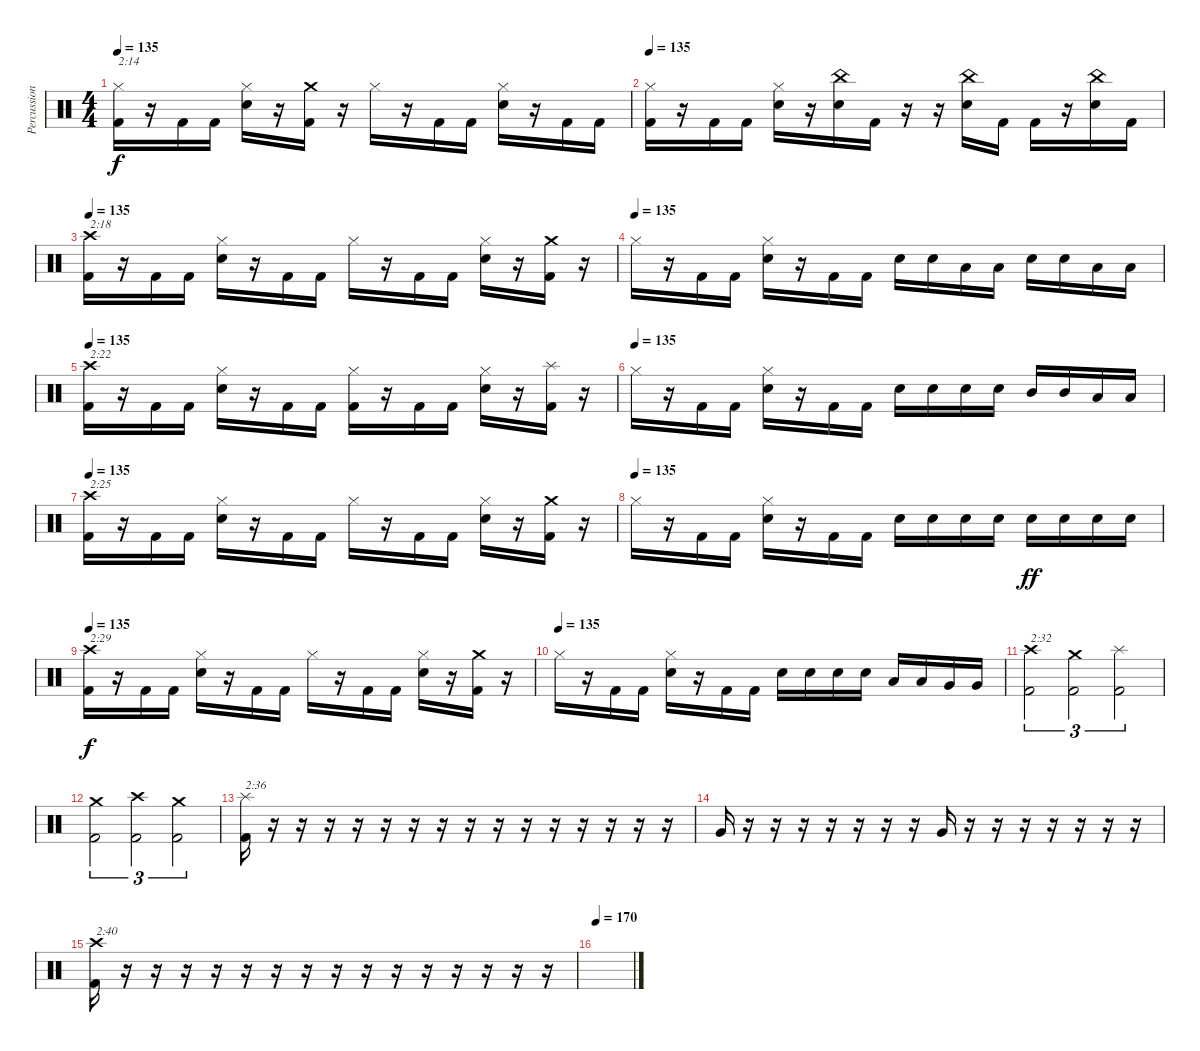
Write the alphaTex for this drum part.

\track ("Percussion" "Percussion") {instrument percussion}
\staff {score}
\articulation defaults
\ts (4 4)
\tempo 135
\clef neutral
\ks c
("Hi-Hat (closed)" "Kick (hit) 2").16{txt "2:14" dy f} r.16 "Kick (hit) 2".16 "Kick (hit) 2".16 ("Hi-Hat (closed)" "Snare (hit) 2").16 r.16 ("Crash medium (hit)" "Kick (hit) 2").16 r.16 "Hi-Hat (closed)".16 r.16 "Kick (hit) 2".16 "Kick (hit) 2".16 ("Hi-Hat (closed)" "Snare (hit) 2").16 r.16 "Kick (hit) 2".16 "Kick (hit) 2".16 |
\tempo 135
("Hi-Hat (closed)" "Kick (hit) 2").16 r.16 "Kick (hit) 2".16 "Kick (hit) 2".16 ("Hi-Hat (closed)" "Snare (hit) 2").16 r.16 ("China (hit)" "Snare (hit) 2").16 "Kick (hit) 2".16 r.16 r.16 ("China (hit)" "Snare (hit) 2").16 "Kick (hit) 2".16 "Kick (hit) 2".16 r.16 ("China (hit)" "Snare (hit) 2").16 "Kick (hit) 2".16 |
\tempo 135
("Crash high (hit)" "Kick (hit) 2").16{txt "2:18"} r.16 "Kick (hit) 2".16 "Kick (hit) 2".16 ("Hi-Hat (closed)" "Snare (hit) 2").16 r.16 "Kick (hit) 2".16 "Kick (hit) 2".16 "Hi-Hat (closed)".16 r.16 "Kick (hit) 2".16 "Kick (hit) 2".16 ("Hi-Hat (closed)" "Snare (hit) 2").16 r.16 ("Crash medium (hit)" "Kick (hit) 2").16 r.16 |
\tempo (135)
"Hi-Hat (closed)".16 r.16 "Kick (hit) 2".16 "Kick (hit) 2".16 ("Hi-Hat (closed)" "Snare (hit) 2").16 r.16 "Kick (hit) 2".16 "Kick (hit) 2".16 "Snare (hit) 2".16 "Snare (hit) 2".16 "Low Tom (hit)".16 "Low Tom (hit)".16 "Snare (hit) 2".16 "Snare (hit) 2".16 "Low Tom (hit)".16 "Low Tom (hit)".16 |
\tempo 135
("Crash high (hit)" "Kick (hit) 2").16{txt "2:22"} r.16 "Kick (hit) 2".16 "Kick (hit) 2".16 ("Hi-Hat (closed)" "Snare (hit) 2").16 r.16 "Kick (hit) 2".16 "Kick (hit) 2".16 ("Hi-Hat (closed)" "Kick (hit) 2").16 r.16 "Kick (hit) 2".16 "Kick (hit) 2".16 ("Hi-Hat (closed)" "Snare (hit) 2").16 r.16 ("Splash (hit)" "Kick (hit) 2").16 r.16 |
\tempo (135)
"Hi-Hat (closed)".16 r.16 "Kick (hit) 2".16 "Kick (hit) 2".16 ("Hi-Hat (closed)" "Snare (hit) 2").16 r.16 "Kick (hit) 2".16 "Kick (hit) 2".16 "Snare (hit) 2".16 "Snare (hit) 2".16 "Snare (hit) 2".16 "Snare (hit) 2".16 "Mid Tom (hit)".16 "Mid Tom (hit)".16 "Low Tom (hit)".16 "Low Tom (hit)".16 |
\tempo 135
("Crash high (hit)" "Kick (hit) 2").16{txt "2:25"} r.16 "Kick (hit) 2".16 "Kick (hit) 2".16 ("Hi-Hat (closed)" "Snare (hit) 2").16 r.16 "Kick (hit) 2".16 "Kick (hit) 2".16 "Hi-Hat (closed)".16 r.16 "Kick (hit) 2".16 "Kick (hit) 2".16 ("Hi-Hat (closed)" "Snare (hit) 2").16 r.16 ("Crash medium (hit)" "Kick (hit) 2").16 r.16 |
\tempo (135)
"Hi-Hat (closed)".16 r.16 "Kick (hit) 2".16 "Kick (hit) 2".16 ("Hi-Hat (closed)" "Snare (hit) 2").16 r.16 "Kick (hit) 2".16 "Kick (hit) 2".16 "Snare (hit) 2".16 "Snare (hit) 2".16 "Snare (hit) 2".16 "Snare (hit) 2".16 "Snare (hit) 2".16{dy ff} "Snare (hit) 2".16 "Snare (hit) 2".16 "Snare (hit) 2".16 |
\tempo 135
("Crash high (hit)" "Kick (hit) 2").16{txt "2:29" dy f} r.16 "Kick (hit) 2".16 "Kick (hit) 2".16 ("Hi-Hat (closed)" "Snare (hit) 2").16 r.16 "Kick (hit) 2".16 "Kick (hit) 2".16 "Hi-Hat (closed)".16 r.16 "Kick (hit) 2".16 "Kick (hit) 2".16 ("Hi-Hat (closed)" "Snare (hit) 2").16 r.16 ("Crash medium (hit)" "Kick (hit) 2").16 r.16 |
\tempo (135)
"Hi-Hat (closed)".16 r.16 "Kick (hit) 2".16 "Kick (hit) 2".16 ("Hi-Hat (closed)" "Snare (hit) 2").16 r.16 "Kick (hit) 2".16 "Kick (hit) 2".16 "Snare (hit) 2".16 "Snare (hit) 2".16 "Snare (hit) 2".16 "Snare (hit) 2".16 "Low Tom (hit)".16 "Low Tom (hit)".16 "Very Low Tom (hit)".16 "Very Low Tom (hit)".16 |
("Crash high (hit)" "Kick (hit) 2").2{tu (3 2) txt "2:32"} ("Crash medium (hit)" "Kick (hit) 2").2{tu (3 2)} ("Splash (hit)" "Kick (hit) 2").2{tu (3 2)} |
("Crash medium (hit)" "Kick (hit) 2").2{tu (3 2)} ("Crash high (hit)" "Kick (hit) 2").2{tu (3 2)} ("Crash medium (hit)" "Kick (hit) 2").2{tu (3 2)} |
("Splash (hit)" "Kick (hit) 2").16{txt "2:36"} r.16 r.16 r.16 r.16 r.16 r.16 r.16 r.16 r.16 r.16 r.16 r.16 r.16 r.16 r.16 |
"Very Low Tom (hit)".16 r.16 r.16 r.16 r.16 r.16 r.16 r.16 "Very Low Tom (hit)".16 r.16 r.16 r.16 r.16 r.16 r.16 r.16 |
("Crash high (hit)" "Kick (hit) 2").16{txt "2:40"} r.16 r.16 r.16 r.16 r.16 r.16 r.16 r.16 r.16 r.16 r.16 r.16 r.16 r.16 r.16 |
\tempo 170
